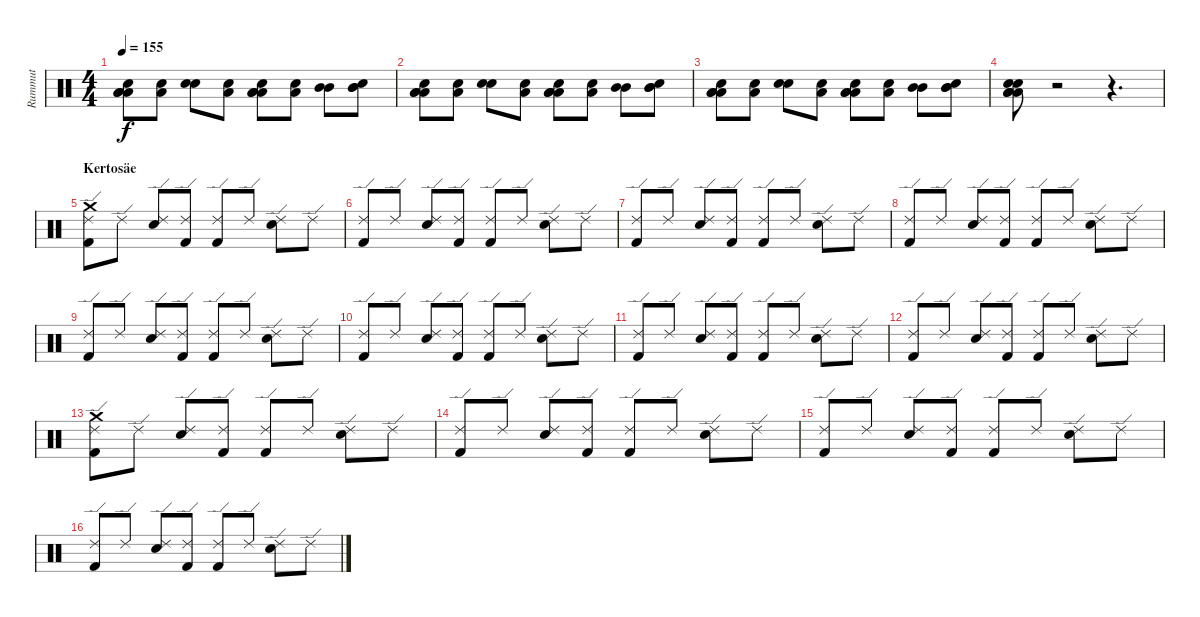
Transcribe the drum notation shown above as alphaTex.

\track ("Rummut" "Rummut") {instrument percussion}
\staff {score}
\articulation defaults
\ts (4 4)
\tempo 155
\clef neutral
\ks c
("Low Floor Tom (hit)" "Low Floor Tom (hit)" "Low Floor Tom (hit)" "Snare (hit)"{x}).8{dy f} ("Low Floor Tom (hit)" "Snare (hit)"{x}).8 ("Snare (hit) 2" "Snare (hit) 2").8 ("Low Floor Tom (hit)" "Snare (hit)"{x}).8 ("Low Floor Tom (hit)" "Low Floor Tom (hit)" "Low Floor Tom (hit)" "Snare (hit)"{x}).8 ("Low Floor Tom (hit)" "Snare (hit)"{x}).8 ("Mid Tom (hit)" "Mid Tom (hit)").8 ("Mid Tom (hit)" "Mid Tom (hit)" "Snare (hit)"{x}).8 |
("Low Floor Tom (hit)" "Low Floor Tom (hit)" "Low Floor Tom (hit)" "Snare (hit)"{x}).8 ("Low Floor Tom (hit)" "Snare (hit)"{x}).8 ("Snare (hit) 2" "Snare (hit) 2").8 ("Low Floor Tom (hit)" "Snare (hit)"{x}).8 ("Low Floor Tom (hit)" "Low Floor Tom (hit)" "Low Floor Tom (hit)" "Snare (hit)"{x}).8 ("Low Floor Tom (hit)" "Snare (hit)"{x}).8 ("Mid Tom (hit)" "Mid Tom (hit)").8 ("Mid Tom (hit)" "Mid Tom (hit)" "Snare (hit)"{x}).8 |
("Low Floor Tom (hit)" "Low Floor Tom (hit)" "Low Floor Tom (hit)" "Snare (hit)"{x}).8 ("Low Floor Tom (hit)" "Snare (hit)"{x}).8 ("Snare (hit) 2" "Snare (hit) 2").8 ("Low Floor Tom (hit)" "Snare (hit)"{x}).8 ("Low Floor Tom (hit)" "Low Floor Tom (hit)" "Low Floor Tom (hit)" "Snare (hit)"{x}).8 ("Low Floor Tom (hit)" "Snare (hit)"{x}).8 ("Mid Tom (hit)" "Mid Tom (hit)").8 ("Mid Tom (hit)" "Mid Tom (hit)" "Snare (hit)"{x}).8 |
("Low Floor Tom (hit)" "Low Floor Tom (hit)" "Low Floor Tom (hit)" "Snare (hit)"{x} "Snare (hit) 2").8 r.2 r.4{d} |
\section ("" "Kertosäe")
("Kick (hit) 2" "Ride (edge) 2" "Crash medium (hit)").8 "Ride (edge) 2".8 ("Electric Snare (hit)" "Ride (edge) 2").8 ("Kick (hit) 2" "Ride (edge) 2").8 ("Kick (hit) 2" "Ride (edge) 2").8 "Ride (edge) 2".8 ("Electric Snare (hit)" "Ride (edge) 2").8 "Ride (edge) 2".8 |
("Kick (hit) 2" "Ride (edge) 2").8 "Ride (edge) 2".8 ("Electric Snare (hit)" "Ride (edge) 2").8 ("Kick (hit) 2" "Ride (edge) 2").8 ("Kick (hit) 2" "Ride (edge) 2").8 "Ride (edge) 2".8 ("Electric Snare (hit)" "Ride (edge) 2").8 "Ride (edge) 2".8 |
("Kick (hit) 2" "Ride (edge) 2").8 "Ride (edge) 2".8 ("Electric Snare (hit)" "Ride (edge) 2").8 ("Kick (hit) 2" "Ride (edge) 2").8 ("Kick (hit) 2" "Ride (edge) 2").8 "Ride (edge) 2".8 ("Electric Snare (hit)" "Ride (edge) 2").8 "Ride (edge) 2".8 |
("Kick (hit) 2" "Ride (edge) 2").8 "Ride (edge) 2".8 ("Electric Snare (hit)" "Ride (edge) 2").8 ("Kick (hit) 2" "Ride (edge) 2").8 ("Kick (hit) 2" "Ride (edge) 2").8 "Ride (edge) 2".8 ("Electric Snare (hit)" "Ride (edge) 2").8 "Ride (edge) 2".8 |
("Kick (hit) 2" "Ride (edge) 2").8 "Ride (edge) 2".8 ("Electric Snare (hit)" "Ride (edge) 2").8 ("Kick (hit) 2" "Ride (edge) 2").8 ("Kick (hit) 2" "Ride (edge) 2").8 "Ride (edge) 2".8 ("Electric Snare (hit)" "Ride (edge) 2").8 "Ride (edge) 2".8 |
("Kick (hit) 2" "Ride (edge) 2").8 "Ride (edge) 2".8 ("Electric Snare (hit)" "Ride (edge) 2").8 ("Kick (hit) 2" "Ride (edge) 2").8 ("Kick (hit) 2" "Ride (edge) 2").8 "Ride (edge) 2".8 ("Electric Snare (hit)" "Ride (edge) 2").8 "Ride (edge) 2".8 |
("Kick (hit) 2" "Ride (edge) 2").8 "Ride (edge) 2".8 ("Electric Snare (hit)" "Ride (edge) 2").8 ("Kick (hit) 2" "Ride (edge) 2").8 ("Kick (hit) 2" "Ride (edge) 2").8 "Ride (edge) 2".8 ("Electric Snare (hit)" "Ride (edge) 2").8 "Ride (edge) 2".8 |
("Kick (hit) 2" "Ride (edge) 2").8 "Ride (edge) 2".8 ("Electric Snare (hit)" "Ride (edge) 2").8 ("Kick (hit) 2" "Ride (edge) 2").8 ("Kick (hit) 2" "Ride (edge) 2").8 "Ride (edge) 2".8 ("Electric Snare (hit)" "Ride (edge) 2").8 "Ride (edge) 2".8 |
("Kick (hit) 2" "Ride (edge) 2" "Crash medium (hit)").8 "Ride (edge) 2".8 ("Electric Snare (hit)" "Ride (edge) 2").8 ("Kick (hit) 2" "Ride (edge) 2").8 ("Kick (hit) 2" "Ride (edge) 2").8 "Ride (edge) 2".8 ("Electric Snare (hit)" "Ride (edge) 2").8 "Ride (edge) 2".8 |
("Kick (hit) 2" "Ride (edge) 2").8 "Ride (edge) 2".8 ("Electric Snare (hit)" "Ride (edge) 2").8 ("Kick (hit) 2" "Ride (edge) 2").8 ("Kick (hit) 2" "Ride (edge) 2").8 "Ride (edge) 2".8 ("Electric Snare (hit)" "Ride (edge) 2").8 "Ride (edge) 2".8 |
("Kick (hit) 2" "Ride (edge) 2").8 "Ride (edge) 2".8 ("Electric Snare (hit)" "Ride (edge) 2").8 ("Kick (hit) 2" "Ride (edge) 2").8 ("Kick (hit) 2" "Ride (edge) 2").8 "Ride (edge) 2".8 ("Electric Snare (hit)" "Ride (edge) 2").8 "Ride (edge) 2".8 |
("Kick (hit) 2" "Ride (edge) 2").8 "Ride (edge) 2".8 ("Electric Snare (hit)" "Ride (edge) 2").8 ("Kick (hit) 2" "Ride (edge) 2").8 ("Kick (hit) 2" "Ride (edge) 2").8 "Ride (edge) 2".8 ("Electric Snare (hit)" "Ride (edge) 2").8 "Ride (edge) 2".8
